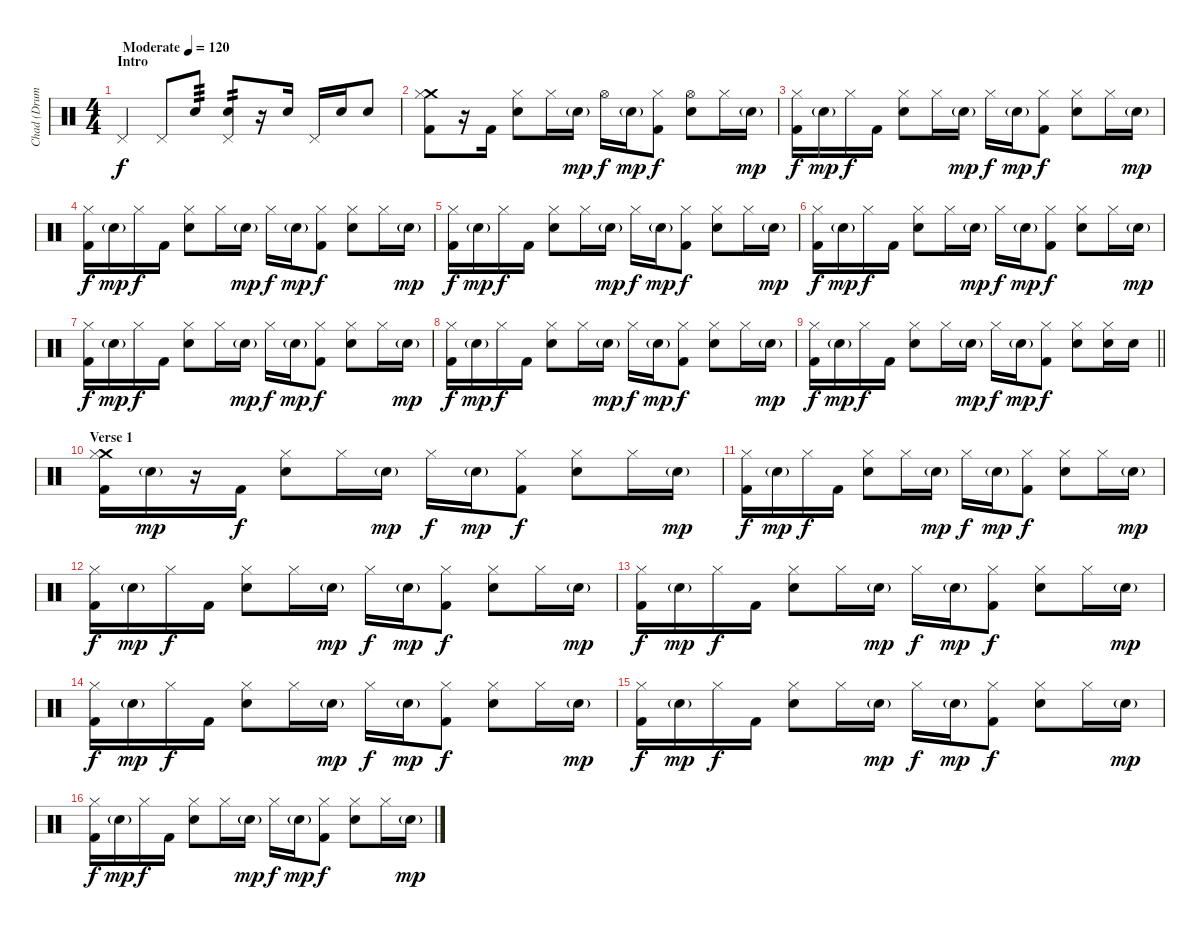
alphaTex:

\track ("Chad (Drums)" "Chad (Drum") {instrument percussion}
\staff {score}
\articulation defaults
\ts (4 4)
\section ("" "Intro")
\tempo (120 "Moderate")
\clef neutral
\ks c "Pedal Hi-Hat (hit)".4{dy f} "Pedal Hi-Hat (hit)".8 "Snare (hit) 2".8{tp 3}
("Pedal Hi-Hat (hit)" "Electric Snare (hit)").8{tp 2} r.16 "Electric Snare (hit)".16 "Pedal Hi-Hat (hit)".16 "Electric Snare (hit)".16 "Electric Snare (hit)".8 |
("Crash medium (hit)" "Hi-Hat (closed)" "Kick (hit) 2").8 r.16 "Kick (hit) 2".16 ("Hi-Hat (closed)" "Electric Snare (hit)").8 "Hi-Hat (closed)".16 "Electric Snare (hit)"{g}.16{dy mp} "Hi-Hat (open)".16{dy f} "Electric Snare (hit)"{g}.16{dy mp} ("Hi-Hat (closed)" "Kick (hit) 2").8{dy f} ("Hi-Hat (open)" "Electric Snare (hit)").8 "Hi-Hat (closed)".16 "Electric Snare (hit)"{g}.16{dy mp} |
("Hi-Hat (closed)" "Kick (hit) 2").16{dy f} "Electric Snare (hit)"{g}.16{dy mp} "Hi-Hat (closed)".16{dy f} "Kick (hit) 2".16 ("Hi-Hat (closed)" "Electric Snare (hit)").8 "Hi-Hat (closed)".16 "Electric Snare (hit)"{g}.16{dy mp} "Hi-Hat (closed)".16{dy f} "Electric Snare (hit)"{g}.16{dy mp} ("Hi-Hat (closed)" "Kick (hit) 2").8{dy f} ("Hi-Hat (closed)" "Electric Snare (hit)").8 "Hi-Hat (closed)".16 "Electric Snare (hit)"{g}.16{dy mp} |
("Hi-Hat (closed)" "Kick (hit) 2").16{dy f} "Electric Snare (hit)"{g}.16{dy mp} "Hi-Hat (closed)".16{dy f} "Kick (hit) 2".16 ("Hi-Hat (closed)" "Electric Snare (hit)").8 "Hi-Hat (closed)".16 "Electric Snare (hit)"{g}.16{dy mp} "Hi-Hat (closed)".16{dy f} "Electric Snare (hit)"{g}.16{dy mp} ("Hi-Hat (closed)" "Kick (hit) 2").8{dy f} ("Hi-Hat (closed)" "Electric Snare (hit)").8 "Hi-Hat (closed)".16 "Electric Snare (hit)"{g}.16{dy mp} |
("Hi-Hat (closed)" "Kick (hit) 2").16{dy f} "Electric Snare (hit)"{g}.16{dy mp} "Hi-Hat (closed)".16{dy f} "Kick (hit) 2".16 ("Hi-Hat (closed)" "Electric Snare (hit)").8 "Hi-Hat (closed)".16 "Electric Snare (hit)"{g}.16{dy mp} "Hi-Hat (closed)".16{dy f} "Electric Snare (hit)"{g}.16{dy mp} ("Hi-Hat (closed)" "Kick (hit) 2").8{dy f} ("Hi-Hat (closed)" "Electric Snare (hit)").8 "Hi-Hat (closed)".16 "Electric Snare (hit)"{g}.16{dy mp} |
("Hi-Hat (closed)" "Kick (hit) 2").16{dy f} "Electric Snare (hit)"{g}.16{dy mp} "Hi-Hat (closed)".16{dy f} "Kick (hit) 2".16 ("Hi-Hat (closed)" "Electric Snare (hit)").8 "Hi-Hat (closed)".16 "Electric Snare (hit)"{g}.16{dy mp} "Hi-Hat (closed)".16{dy f} "Electric Snare (hit)"{g}.16{dy mp} ("Hi-Hat (closed)" "Kick (hit) 2").8{dy f} ("Hi-Hat (closed)" "Electric Snare (hit)").8 "Hi-Hat (closed)".16 "Electric Snare (hit)"{g}.16{dy mp} |
("Hi-Hat (closed)" "Kick (hit) 2").16{dy f} "Electric Snare (hit)"{g}.16{dy mp} "Hi-Hat (closed)".16{dy f} "Kick (hit) 2".16 ("Hi-Hat (closed)" "Electric Snare (hit)").8 "Hi-Hat (closed)".16 "Electric Snare (hit)"{g}.16{dy mp} "Hi-Hat (closed)".16{dy f} "Electric Snare (hit)"{g}.16{dy mp} ("Hi-Hat (closed)" "Kick (hit) 2").8{dy f} ("Hi-Hat (closed)" "Electric Snare (hit)").8 "Hi-Hat (closed)".16 "Electric Snare (hit)"{g}.16{dy mp} |
("Hi-Hat (closed)" "Kick (hit) 2").16{dy f} "Electric Snare (hit)"{g}.16{dy mp} "Hi-Hat (closed)".16{dy f} "Kick (hit) 2".16 ("Hi-Hat (closed)" "Electric Snare (hit)").8 "Hi-Hat (closed)".16 "Electric Snare (hit)"{g}.16{dy mp} "Hi-Hat (closed)".16{dy f} "Electric Snare (hit)"{g}.16{dy mp} ("Hi-Hat (closed)" "Kick (hit) 2").8{dy f} ("Hi-Hat (closed)" "Electric Snare (hit)").8 "Hi-Hat (closed)".16 "Electric Snare (hit)"{g}.16{dy mp} |
\barLineRight lightlight
("Hi-Hat (closed)" "Kick (hit) 2").16{dy f} "Electric Snare (hit)"{g}.16{dy mp} "Hi-Hat (closed)".16{dy f} "Kick (hit) 2".16 ("Hi-Hat (closed)" "Electric Snare (hit)").8 "Hi-Hat (closed)".16 "Electric Snare (hit)"{g}.16{dy mp} "Hi-Hat (closed)".16{dy f} "Electric Snare (hit)"{g}.16{dy mp} ("Hi-Hat (closed)" "Kick (hit) 2").8{dy f} ("Hi-Hat (closed)" "Electric Snare (hit)").8 ("Hi-Hat (closed)" "Electric Snare (hit)").16 "Electric Snare (hit)".16 |
\section ("" "Verse 1")
("Crash medium (hit)" "Hi-Hat (closed)" "Kick (hit) 2").16 "Electric Snare (hit)"{g}.16{dy mp} r.16 "Kick (hit) 2".16{dy f} ("Hi-Hat (closed)" "Electric Snare (hit)").8 "Hi-Hat (closed)".16 "Electric Snare (hit)"{g}.16{dy mp} "Hi-Hat (closed)".16{dy f} "Electric Snare (hit)"{g}.16{dy mp} ("Hi-Hat (closed)" "Kick (hit) 2").8{dy f} ("Hi-Hat (closed)" "Electric Snare (hit)").8 "Hi-Hat (closed)".16 "Electric Snare (hit)"{g}.16{dy mp} |
("Hi-Hat (closed)" "Kick (hit) 2").16{dy f} "Electric Snare (hit)"{g}.16{dy mp} "Hi-Hat (closed)".16{dy f} "Kick (hit) 2".16 ("Hi-Hat (closed)" "Electric Snare (hit)").8 "Hi-Hat (closed)".16 "Electric Snare (hit)"{g}.16{dy mp} "Hi-Hat (closed)".16{dy f} "Electric Snare (hit)"{g}.16{dy mp} ("Hi-Hat (closed)" "Kick (hit) 2").8{dy f} ("Hi-Hat (closed)" "Electric Snare (hit)").8 "Hi-Hat (closed)".16 "Electric Snare (hit)"{g}.16{dy mp} |
("Hi-Hat (closed)" "Kick (hit) 2").16{dy f} "Electric Snare (hit)"{g}.16{dy mp} "Hi-Hat (closed)".16{dy f} "Kick (hit) 2".16 ("Hi-Hat (closed)" "Electric Snare (hit)").8 "Hi-Hat (closed)".16 "Electric Snare (hit)"{g}.16{dy mp} "Hi-Hat (closed)".16{dy f} "Electric Snare (hit)"{g}.16{dy mp} ("Hi-Hat (closed)" "Kick (hit) 2").8{dy f} ("Hi-Hat (closed)" "Electric Snare (hit)").8 "Hi-Hat (closed)".16 "Electric Snare (hit)"{g}.16{dy mp} |
("Hi-Hat (closed)" "Kick (hit) 2").16{dy f} "Electric Snare (hit)"{g}.16{dy mp} "Hi-Hat (closed)".16{dy f} "Kick (hit) 2".16 ("Hi-Hat (closed)" "Electric Snare (hit)").8 "Hi-Hat (closed)".16 "Electric Snare (hit)"{g}.16{dy mp} "Hi-Hat (closed)".16{dy f} "Electric Snare (hit)"{g}.16{dy mp} ("Hi-Hat (closed)" "Kick (hit) 2").8{dy f} ("Hi-Hat (closed)" "Electric Snare (hit)").8 "Hi-Hat (closed)".16 "Electric Snare (hit)"{g}.16{dy mp} |
("Hi-Hat (closed)" "Kick (hit) 2").16{dy f} "Electric Snare (hit)"{g}.16{dy mp} "Hi-Hat (closed)".16{dy f} "Kick (hit) 2".16 ("Hi-Hat (closed)" "Electric Snare (hit)").8 "Hi-Hat (closed)".16 "Electric Snare (hit)"{g}.16{dy mp} "Hi-Hat (closed)".16{dy f} "Electric Snare (hit)"{g}.16{dy mp} ("Hi-Hat (closed)" "Kick (hit) 2").8{dy f} ("Hi-Hat (closed)" "Electric Snare (hit)").8 "Hi-Hat (closed)".16 "Electric Snare (hit)"{g}.16{dy mp} |
("Hi-Hat (closed)" "Kick (hit) 2").16{dy f} "Electric Snare (hit)"{g}.16{dy mp} "Hi-Hat (closed)".16{dy f} "Kick (hit) 2".16 ("Hi-Hat (closed)" "Electric Snare (hit)").8 "Hi-Hat (closed)".16 "Electric Snare (hit)"{g}.16{dy mp} "Hi-Hat (closed)".16{dy f} "Electric Snare (hit)"{g}.16{dy mp} ("Hi-Hat (closed)" "Kick (hit) 2").8{dy f} ("Hi-Hat (closed)" "Electric Snare (hit)").8 "Hi-Hat (closed)".16 "Electric Snare (hit)"{g}.16{dy mp} |
("Hi-Hat (closed)" "Kick (hit) 2").16{dy f} "Electric Snare (hit)"{g}.16{dy mp} "Hi-Hat (closed)".16{dy f} "Kick (hit) 2".16 ("Hi-Hat (closed)" "Electric Snare (hit)").8 "Hi-Hat (closed)".16 "Electric Snare (hit)"{g}.16{dy mp} "Hi-Hat (closed)".16{dy f} "Electric Snare (hit)"{g}.16{dy mp} ("Hi-Hat (closed)" "Kick (hit) 2").8{dy f} ("Hi-Hat (closed)" "Electric Snare (hit)").8 "Hi-Hat (closed)".16 "Electric Snare (hit)"{g}.16{dy mp}
